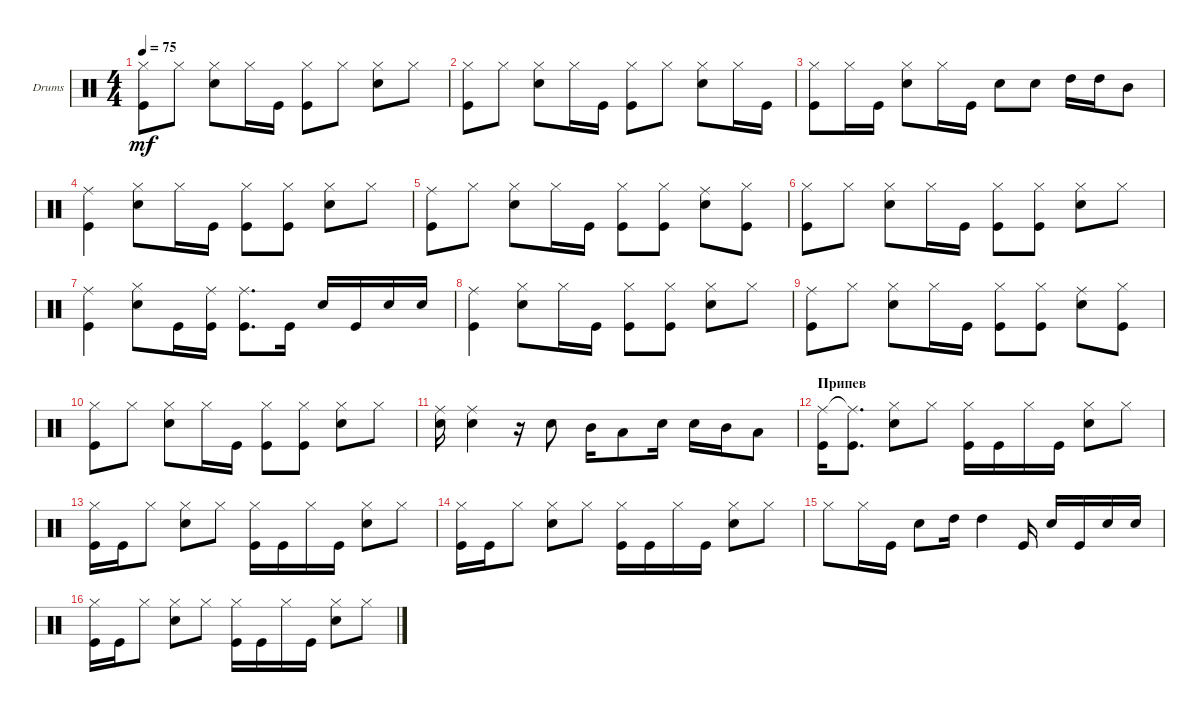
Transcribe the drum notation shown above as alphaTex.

\defaultSystemsLayout 4
\bracketExtendMode groupsimilarinstruments
\firstSystemTrackNameOrientation horizontal
\otherSystemsTrackNameOrientation horizontal
\track ("Барабаны" "Drums") {solo instrument percussion}
\staff {score}
\articulation defaults
\ts (4 4)
\tempo 75
\clef neutral
\scale
0.333333
\ks c
("Kick (hit)" "Hi-Hat (closed)").8{dy mf} "Hi-Hat (closed)".8 ("Snare (hit) 2" "Hi-Hat (closed)").8 "Hi-Hat (closed)".16 "Kick (hit)".16 ("Kick (hit)" "Hi-Hat (closed)").8 "Hi-Hat (closed)".8 ("Snare (hit) 2" "Hi-Hat (closed)").8 "Hi-Hat (closed)".8 |
\scale
0.333333 ("Kick (hit)" "Hi-Hat (closed)").8 "Hi-Hat (closed)".8 ("Snare (hit) 2" "Hi-Hat (closed)").8 "Hi-Hat (closed)".16 "Kick (hit)".16 ("Kick (hit)" "Hi-Hat (closed)").8 "Hi-Hat (closed)".8 ("Snare (hit) 2" "Hi-Hat (closed)").8 "Hi-Hat (closed)".16 "Kick (hit)".16 |
\scale
0.333333 ("Kick (hit)" "Hi-Hat (closed)").8 "Hi-Hat (closed)".16 "Kick (hit)".16 ("Snare (hit) 2" "Hi-Hat (closed)").8 "Hi-Hat (closed)".16 "Kick (hit)".16 "Snare (hit) 2".8 "Snare (hit) 2".8 "High Tom (hit)".16 "High Tom (hit)".16 "Mid Tom (hit)".8 |
\scale
0.333333 ("Kick (hit)" "Ride (middle)").4 ("Snare (hit) 2" "Hi-Hat (closed)").8 "Hi-Hat (closed)".16 "Kick (hit)".16 ("Kick (hit)" "Hi-Hat (closed)").8 ("Kick (hit)" "Hi-Hat (closed)").8 ("Snare (hit) 2" "Hi-Hat (closed)").8 "Hi-Hat (closed)".8 |
\scale
0.333333 ("Kick (hit)" "Ride (middle)").8 "Hi-Hat (closed)".8 ("Snare (hit) 2" "Hi-Hat (closed)").8 "Hi-Hat (closed)".16 "Kick (hit)".16 ("Kick (hit)" "Hi-Hat (closed)").8 ("Kick (hit)" "Hi-Hat (closed)").8 ("Snare (hit) 2" "Ride (middle)").8 ("Kick (hit)" "Hi-Hat (closed)").8 |
\scale
0.333333 ("Kick (hit)" "Hi-Hat (closed)").8 "Hi-Hat (closed)".8 ("Snare (hit) 2" "Hi-Hat (closed)").8 "Hi-Hat (closed)".16 "Kick (hit)".16 ("Kick (hit)" "Hi-Hat (closed)").8 ("Kick (hit)" "Hi-Hat (closed)").8 ("Snare (hit) 2" "Hi-Hat (closed)").8 "Hi-Hat (closed)".8 |
\scale
0.333333 ("Kick (hit)" "Ride (middle)").4 ("Snare (hit) 2" "Hi-Hat (closed)").8 "Kick (hit)".16 ("Kick (hit)" "Ride (middle)").16 ("Kick (hit)" "Ride (middle)").8{d} "Kick (hit)".16 "Snare (hit) 2".16 "Kick (hit)".16 "Snare (hit) 2".16 "Snare (hit) 2".16 |
\scale
0.333333 ("Kick (hit)" "Ride (middle)").4 ("Snare (hit) 2" "Hi-Hat (closed)").8 "Hi-Hat (closed)".16 "Kick (hit)".16 ("Kick (hit)" "Hi-Hat (closed)").8 ("Kick (hit)" "Hi-Hat (closed)").8 ("Snare (hit) 2" "Hi-Hat (closed)").8 "Hi-Hat (closed)".8 |
\scale
0.333333 ("Kick (hit)" "Ride (middle)").8 "Hi-Hat (closed)".8 ("Snare (hit) 2" "Hi-Hat (closed)").8 "Hi-Hat (closed)".16 "Kick (hit)".16 ("Kick (hit)" "Hi-Hat (closed)").8 ("Kick (hit)" "Hi-Hat (closed)").8 ("Snare (hit) 2" "Ride (middle)").8 ("Kick (hit)" "Hi-Hat (closed)").8 |
\scale
0.333333 ("Kick (hit)" "Hi-Hat (closed)").8 "Hi-Hat (closed)".8 ("Snare (hit) 2" "Hi-Hat (closed)").8 "Hi-Hat (closed)".16 "Kick (hit)".16 ("Kick (hit)" "Hi-Hat (closed)").8 ("Kick (hit)" "Hi-Hat (closed)").8 ("Snare (hit) 2" "Hi-Hat (closed)").8 "Hi-Hat (closed)".8 |
("Snare (hit) 2" "Ride (middle)").16 ("Snare (hit) 2" "Ride (middle)").4 r.16 "Snare (hit) 2".8 "Mid Tom (hit)".16 "Low Tom (hit)".8 "Snare (hit) 2".16 "Snare (hit) 2".16 "Mid Tom (hit)".16 "Low Tom (hit)".8 |
\section ("" "Припев")
\scale
0.333333 ("Kick (hit)" "Ride (middle)").16 ("Kick (hit)" "Ride (middle)"{t}).8{d} ("Snare (hit) 2" "Hi-Hat (closed)").8 "Hi-Hat (closed)".8 ("Kick (hit)" "Hi-Hat (closed)").16 "Kick (hit)".16 "Hi-Hat (closed)".16 "Kick (hit)".16 ("Snare (hit) 2" "Hi-Hat (closed)").8 "Hi-Hat (closed)".8 |
\scale
0.333333 ("Kick (hit)" "Hi-Hat (closed)").16 "Kick (hit)".16 "Hi-Hat (closed)".8 ("Snare (hit) 2" "Hi-Hat (closed)").8 "Hi-Hat (closed)".8 ("Kick (hit)" "Hi-Hat (closed)").16 "Kick (hit)".16 "Hi-Hat (closed)".16 "Kick (hit)".16 ("Snare (hit) 2" "Hi-Hat (closed)").8 "Hi-Hat (closed)".8 |
\scale
0.333333 ("Kick (hit)" "Hi-Hat (closed)").16 "Kick (hit)".16 "Hi-Hat (closed)".8 ("Snare (hit) 2" "Hi-Hat (closed)").8 "Hi-Hat (closed)".8 ("Kick (hit)" "Hi-Hat (closed)").16 "Kick (hit)".16 "Hi-Hat (closed)".16 "Kick (hit)".16 ("Snare (hit) 2" "Hi-Hat (closed)").8 "Hi-Hat (closed)".8 |
\scale
0.333333 "Hi-Hat (closed)".8 "Hi-Hat (closed)".16 "Kick (hit)".16 "Snare (hit) 2".8 "High Tom (hit)".16 "High Tom (hit)".4 "Kick (hit)".16 "Snare (hit) 2".16 "Kick (hit)".16 "Snare (hit) 2".16 "Snare (hit) 2".16 |
\scale
0.333333 ("Kick (hit)" "Hi-Hat (closed)").16 "Kick (hit)".16 "Hi-Hat (closed)".8 ("Snare (hit) 2" "Hi-Hat (closed)").8 "Hi-Hat (closed)".8 ("Kick (hit)" "Hi-Hat (closed)").16 "Kick (hit)".16 "Hi-Hat (closed)".16 "Kick (hit)".16 ("Snare (hit) 2" "Hi-Hat (closed)").8 "Hi-Hat (closed)".8
